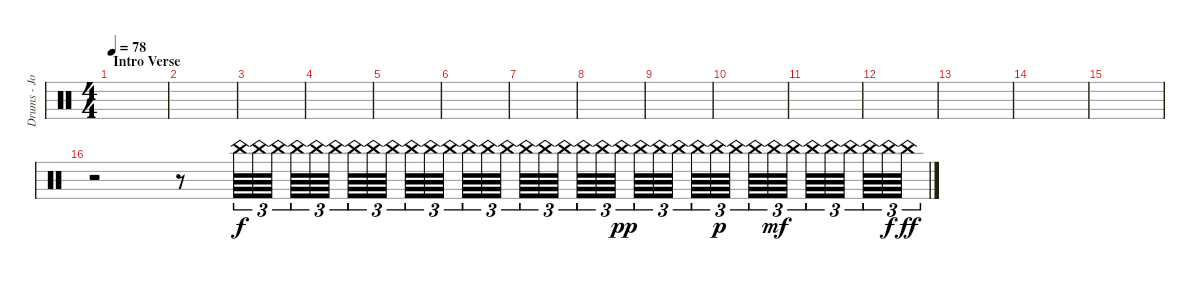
\track ("Drums - Jorg Michael" "Drums - Jo") {instrument percussion}
\staff {score}
\articulation defaults
\ts (4 4)
\section ("" "Intro Verse")
\tempo 78
\clef neutral
\ks c
|
|
|
|
|
|
|
|
\section ("" "")
|
|
|
|
|
|
|
r.2 r.8 "China (hit)".64{tu (3 2)} "China (hit)".64{tu (3 2)} "China (hit)".64{tu (3 2)} "China (hit)".64{tu (3 2)} "China (hit)".64{tu (3 2)} "China (hit)".64{tu (3 2)} "China (hit)".64{tu (3 2)} "China (hit)".64{tu (3 2)} "China (hit)".64{tu (3 2)} "China (hit)".64{tu (3 2)} "China (hit)".64{tu (3 2)} "China (hit)".64{tu (3 2)} "China (hit)".64{tu (3 2)} "China (hit)".64{tu (3 2)} "China (hit)".64{tu (3 2)} "China (hit)".64{tu (3 2)} "China (hit)".64{tu (3 2)} "China (hit)".64{tu (3 2)} "China (hit)".64{tu (3 2)} "China (hit)".64{tu (3 2)} "China (hit)".64{tu (3 2) dy pp} "China (hit)".64{tu (3 2)} "China (hit)".64{tu (3 2)} "China (hit)".64{tu (3 2)} "China (hit)".64{tu (3 2)} "China (hit)".64{tu (3 2) dy p} "China (hit)".64{tu (3 2)} "China (hit)".64{tu (3 2)} "China (hit)".64{tu (3 2) dy mf} "China (hit)".64{tu (3 2)} "China (hit)".64{tu (3 2)} "China (hit)".64{tu (3 2)} "China (hit)".64{tu (3 2)} "China (hit)".64{tu (3 2)} "China (hit)".64{tu (3 2) dy f} "China (hit)".64{tu (3 2) dy ff}
